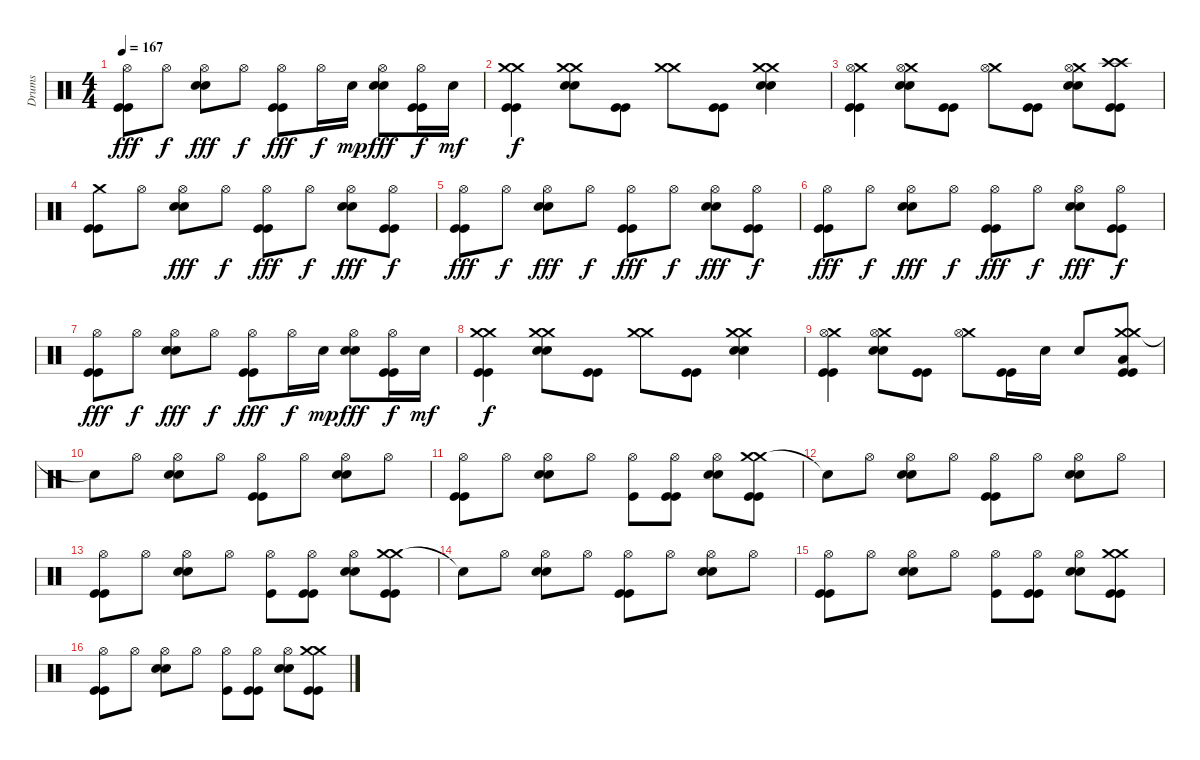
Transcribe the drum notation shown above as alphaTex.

\track ("Drums" "Drums") {instrument percussion}
\staff {score}
\articulation defaults
\ts (4 4)
\tempo 167
\clef neutral
\ks c
("Hi-Hat (open)" "Kick (hit)" "Kick (hit)").8{dy fff} "Hi-Hat (open)".8{dy f} ("Hi-Hat (open)" "Snare (hit) 2" "Snare (hit) 2").8{dy fff} "Hi-Hat (open)".8{dy f} ("Hi-Hat (open)" "Kick (hit)" "Kick (hit)").8{dy fff} "Hi-Hat (open)".16{dy f} "Snare (hit) 2".16{dy mp} ("Hi-Hat (open)" "Snare (hit) 2" "Snare (hit) 2").8{dy fff} ("Hi-Hat (open)" "Kick (hit)" "Kick (hit)").16{dy f} "Snare (hit) 2".16{dy mf} |
("Crash medium (hit)" "Crash medium (hit)" "Kick (hit)" "Kick (hit)").4{dy f} ("Crash medium (hit)" "Snare (hit) 2" "Snare (hit) 2" "Crash medium (hit)").8 ("Kick (hit)" "Kick (hit)").8 ("Crash medium (hit)" "Crash medium (hit)").8 ("Kick (hit)" "Kick (hit)").8 ("Crash medium (hit)" "Snare (hit) 2" "Snare (hit) 2" "Crash medium (hit)").4 |
("Crash medium (hit)" "Hi-Hat (open)" "Kick (hit)" "Kick (hit)").4 ("Crash medium (hit)" "Snare (hit) 2" "Snare (hit) 2" "Hi-Hat (open)").8 ("Kick (hit)" "Kick (hit)").8 ("Crash medium (hit)" "Hi-Hat (open)").8 ("Kick (hit)" "Kick (hit)").8 ("Crash medium (hit)" "Snare (hit) 2" "Snare (hit) 2" "Hi-Hat (open)").8 ("Crash high (hit)" "Crash high (hit)" "Kick (hit)" "Kick (hit)").8 |
("Crash medium (hit)" "Kick (hit)" "Kick (hit)").8 "Hi-Hat (open)".8 ("Hi-Hat (open)" "Snare (hit) 2" "Snare (hit) 2").8{dy fff} "Hi-Hat (open)".8{dy f} ("Hi-Hat (open)" "Kick (hit)" "Kick (hit)").8{dy fff} "Hi-Hat (open)".8{dy f} ("Hi-Hat (open)" "Snare (hit) 2" "Snare (hit) 2").8{dy fff} ("Hi-Hat (open)" "Kick (hit)" "Kick (hit)").8{dy f} |
("Hi-Hat (open)" "Kick (hit)" "Kick (hit)").8{dy fff} "Hi-Hat (open)".8{dy f} ("Hi-Hat (open)" "Snare (hit) 2" "Snare (hit) 2").8{dy fff} "Hi-Hat (open)".8{dy f} ("Hi-Hat (open)" "Kick (hit)" "Kick (hit)").8{dy fff} "Hi-Hat (open)".8{dy f} ("Hi-Hat (open)" "Snare (hit) 2" "Snare (hit) 2").8{dy fff} ("Hi-Hat (open)" "Kick (hit)" "Kick (hit)").8{dy f} |
("Hi-Hat (open)" "Kick (hit)" "Kick (hit)").8{dy fff} "Hi-Hat (open)".8{dy f} ("Hi-Hat (open)" "Snare (hit) 2" "Snare (hit) 2").8{dy fff} "Hi-Hat (open)".8{dy f} ("Hi-Hat (open)" "Kick (hit)" "Kick (hit)").8{dy fff} "Hi-Hat (open)".8{dy f} ("Hi-Hat (open)" "Snare (hit) 2" "Snare (hit) 2").8{dy fff} ("Hi-Hat (open)" "Kick (hit)" "Kick (hit)").8{dy f} |
("Hi-Hat (open)" "Kick (hit)" "Kick (hit)").8{dy fff} "Hi-Hat (open)".8{dy f} ("Hi-Hat (open)" "Snare (hit) 2" "Snare (hit) 2").8{dy fff} "Hi-Hat (open)".8{dy f} ("Hi-Hat (open)" "Kick (hit)" "Kick (hit)").8{dy fff} "Hi-Hat (open)".16{dy f} "Snare (hit) 2".16{dy mp} ("Hi-Hat (open)" "Snare (hit) 2" "Snare (hit) 2").8{dy fff} ("Hi-Hat (open)" "Kick (hit)" "Kick (hit)").16{dy f} "Snare (hit) 2".16{dy mf} |
("Crash medium (hit)" "Crash medium (hit)" "Kick (hit)" "Kick (hit)").4{dy f} ("Crash medium (hit)" "Snare (hit) 2" "Snare (hit) 2" "Crash medium (hit)").8 ("Kick (hit)" "Kick (hit)").8 ("Crash medium (hit)" "Crash medium (hit)").8 ("Kick (hit)" "Kick (hit)").8 ("Crash medium (hit)" "Snare (hit) 2" "Snare (hit) 2" "Crash medium (hit)").4 |
("Crash medium (hit)" "Hi-Hat (open)" "Kick (hit)" "Kick (hit)").4 ("Crash medium (hit)" "Snare (hit) 2" "Snare (hit) 2" "Hi-Hat (open)").8 ("Kick (hit)" "Kick (hit)").8 ("Crash medium (hit)" "Hi-Hat (open)").8 ("Kick (hit)" "Kick (hit)").16 "Snare (hit) 2".16 "Snare (hit) 2".8 ("Crash medium (hit)" "Crash medium (hit)" "Low Tom (hit)" "Kick (hit)" "Kick (hit)").8 |
"Snare (hit)"{t}.8 "Hi-Hat (open)".8 ("Hi-Hat (open)" "Snare (hit) 2" "Snare (hit) 2").8 "Hi-Hat (open)".8 ("Hi-Hat (open)" "Kick (hit)" "Kick (hit)").8 "Hi-Hat (open)".8 ("Hi-Hat (open)" "Snare (hit) 2" "Snare (hit) 2").8 "Hi-Hat (open)".8 |
("Hi-Hat (open)" "Kick (hit)" "Kick (hit)").8 "Hi-Hat (open)".8 ("Hi-Hat (open)" "Snare (hit) 2" "Snare (hit) 2").8 "Hi-Hat (open)".8 ("Hi-Hat (open)" "Kick (hit)").8 ("Hi-Hat (open)" "Kick (hit)" "Kick (hit)").8 ("Hi-Hat (open)" "Snare (hit) 2" "Snare (hit) 2").8 ("Crash medium (hit)" "Crash medium (hit)" "Kick (hit)" "Kick (hit)").8 |
"Snare (hit)"{t}.8 "Hi-Hat (open)".8 ("Hi-Hat (open)" "Snare (hit) 2" "Snare (hit) 2").8 "Hi-Hat (open)".8 ("Hi-Hat (open)" "Kick (hit)" "Kick (hit)").8 "Hi-Hat (open)".8 ("Hi-Hat (open)" "Snare (hit) 2" "Snare (hit) 2").8 "Hi-Hat (open)".8 |
("Hi-Hat (open)" "Kick (hit)" "Kick (hit)").8 "Hi-Hat (open)".8 ("Hi-Hat (open)" "Snare (hit) 2" "Snare (hit) 2").8 "Hi-Hat (open)".8 ("Hi-Hat (open)" "Kick (hit)").8 ("Hi-Hat (open)" "Kick (hit)" "Kick (hit)").8 ("Hi-Hat (open)" "Snare (hit) 2" "Snare (hit) 2").8 ("Crash medium (hit)" "Crash medium (hit)" "Kick (hit)" "Kick (hit)").8 |
"Snare (hit)"{t}.8 "Hi-Hat (open)".8 ("Hi-Hat (open)" "Snare (hit) 2" "Snare (hit) 2").8 "Hi-Hat (open)".8 ("Hi-Hat (open)" "Kick (hit)" "Kick (hit)").8 "Hi-Hat (open)".8 ("Hi-Hat (open)" "Snare (hit) 2" "Snare (hit) 2").8 "Hi-Hat (open)".8 |
("Hi-Hat (open)" "Kick (hit)" "Kick (hit)").8 "Hi-Hat (open)".8 ("Hi-Hat (open)" "Snare (hit) 2" "Snare (hit) 2").8 "Hi-Hat (open)".8 ("Hi-Hat (open)" "Kick (hit)").8 ("Hi-Hat (open)" "Kick (hit)" "Kick (hit)").8 ("Hi-Hat (open)" "Snare (hit) 2" "Snare (hit) 2").8 ("Crash medium (hit)" "Crash medium (hit)" "Kick (hit)" "Kick (hit)").8 |
("Hi-Hat (open)" "Kick (hit)" "Kick (hit)").8 "Hi-Hat (open)".8 ("Hi-Hat (open)" "Snare (hit) 2" "Snare (hit) 2").8 "Hi-Hat (open)".8 ("Hi-Hat (open)" "Kick (hit)").8 ("Hi-Hat (open)" "Kick (hit)" "Kick (hit)").8 ("Hi-Hat (open)" "Snare (hit) 2" "Snare (hit) 2").8 ("Crash medium (hit)" "Crash medium (hit)" "Kick (hit)" "Kick (hit)").8
